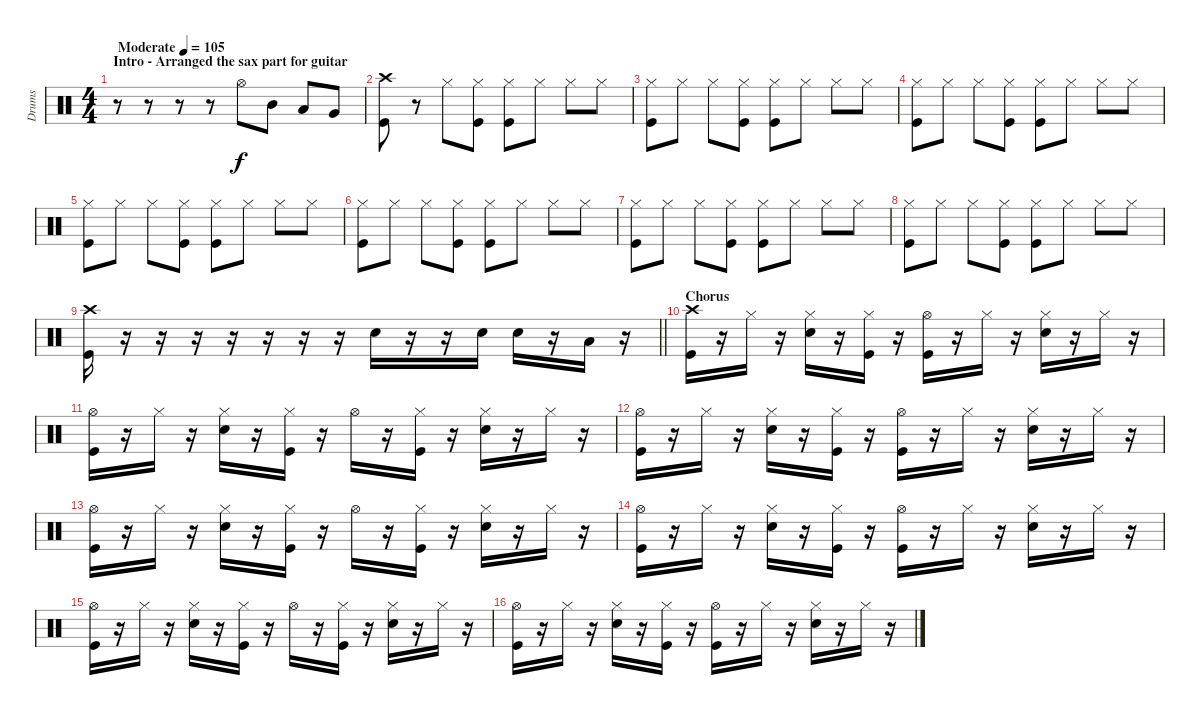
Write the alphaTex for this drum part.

\track ("Drums" "Drums") {instrument percussion}
\staff {score}
\articulation defaults
\ts (4 4)
\section ("" "Intro - Arranged the sax part for guitar")
\tempo (105 "Moderate")
\clef neutral
\ks c
r.8{dy f} r.8 r.8 r.8 "Hi-Hat (open)".8 "Mid Tom (hit)".8 "Low Tom (hit)".8 "Very Low Tom (hit)".8 |
("Crash high (hit)" "Kick (hit)").8 r.8 "Hi-Hat (closed)".8 ("Hi-Hat (closed)" "Kick (hit)").8 ("Hi-Hat (closed)" "Kick (hit)").8 "Hi-Hat (closed)".8 "Hi-Hat (closed)".8 "Hi-Hat (closed)".8 |
("Hi-Hat (closed)" "Kick (hit)").8 "Hi-Hat (closed)".8 "Hi-Hat (closed)".8 ("Hi-Hat (closed)" "Kick (hit)").8 ("Hi-Hat (closed)" "Kick (hit)").8 "Hi-Hat (closed)".8 "Hi-Hat (closed)".8 "Hi-Hat (closed)".8 |
("Hi-Hat (closed)" "Kick (hit)").8 "Hi-Hat (closed)".8 "Hi-Hat (closed)".8 ("Hi-Hat (closed)" "Kick (hit)").8 ("Hi-Hat (closed)" "Kick (hit)").8 "Hi-Hat (closed)".8 "Hi-Hat (closed)".8 "Hi-Hat (closed)".8 |
("Hi-Hat (closed)" "Kick (hit)").8 "Hi-Hat (closed)".8 "Hi-Hat (closed)".8 ("Hi-Hat (closed)" "Kick (hit)").8 ("Hi-Hat (closed)" "Kick (hit)").8 "Hi-Hat (closed)".8 "Hi-Hat (closed)".8 "Hi-Hat (closed)".8 |
("Hi-Hat (closed)" "Kick (hit)").8 "Hi-Hat (closed)".8 "Hi-Hat (closed)".8 ("Hi-Hat (closed)" "Kick (hit)").8 ("Hi-Hat (closed)" "Kick (hit)").8 "Hi-Hat (closed)".8 "Hi-Hat (closed)".8 "Hi-Hat (closed)".8 |
("Hi-Hat (closed)" "Kick (hit)").8 "Hi-Hat (closed)".8 "Hi-Hat (closed)".8 ("Hi-Hat (closed)" "Kick (hit)").8 ("Hi-Hat (closed)" "Kick (hit)").8 "Hi-Hat (closed)".8 "Hi-Hat (closed)".8 "Hi-Hat (closed)".8 |
("Hi-Hat (closed)" "Kick (hit)").8 "Hi-Hat (closed)".8 "Hi-Hat (closed)".8 ("Hi-Hat (closed)" "Kick (hit)").8 ("Hi-Hat (closed)" "Kick (hit)").8 "Hi-Hat (closed)".8 "Hi-Hat (closed)".8 "Hi-Hat (closed)".8 |
\barLineRight lightlight
("Crash high (hit)" "Kick (hit)").16 r.16 r.16 r.16 r.16 r.16 r.16 r.16 "Snare (hit) 2".16 r.16 r.16 "Snare (hit) 2".16 "Snare (hit) 2".16 r.16 "Low Tom (hit)".16 r.16 |
\section ("" "Chorus")
("Crash high (hit)" "Kick (hit)").16 r.16 "Hi-Hat (closed)".16 r.16 ("Hi-Hat (closed)" "Snare (hit) 2").16 r.16 ("Hi-Hat (closed)" "Kick (hit)").16 r.16 ("Hi-Hat (open)" "Kick (hit)").16 r.16 "Hi-Hat (closed)".16 r.16 ("Hi-Hat (closed)" "Snare (hit) 2").16 r.16 "Hi-Hat (closed)".16 r.16 |
("Hi-Hat (open)" "Kick (hit)").16 r.16 "Hi-Hat (closed)".16 r.16 ("Hi-Hat (closed)" "Snare (hit) 2").16 r.16 ("Hi-Hat (closed)" "Kick (hit)").16 r.16 "Hi-Hat (open)".16 r.16 ("Hi-Hat (closed)" "Kick (hit)").16 r.16 ("Hi-Hat (closed)" "Snare (hit) 2").16 r.16 "Hi-Hat (closed)".16 r.16 |
("Hi-Hat (open)" "Kick (hit)").16 r.16 "Hi-Hat (closed)".16 r.16 ("Hi-Hat (closed)" "Snare (hit) 2").16 r.16 ("Hi-Hat (closed)" "Kick (hit)").16 r.16 ("Hi-Hat (open)" "Kick (hit)").16 r.16 "Hi-Hat (closed)".16 r.16 ("Hi-Hat (closed)" "Snare (hit) 2").16 r.16 "Hi-Hat (closed)".16 r.16 |
("Hi-Hat (open)" "Kick (hit)").16 r.16 "Hi-Hat (closed)".16 r.16 ("Hi-Hat (closed)" "Snare (hit) 2").16 r.16 ("Hi-Hat (closed)" "Kick (hit)").16 r.16 "Hi-Hat (open)".16 r.16 ("Hi-Hat (closed)" "Kick (hit)").16 r.16 ("Hi-Hat (closed)" "Snare (hit) 2").16 r.16 "Hi-Hat (closed)".16 r.16 |
("Hi-Hat (open)" "Kick (hit)").16 r.16 "Hi-Hat (closed)".16 r.16 ("Hi-Hat (closed)" "Snare (hit) 2").16 r.16 ("Hi-Hat (closed)" "Kick (hit)").16 r.16 ("Hi-Hat (open)" "Kick (hit)").16 r.16 "Hi-Hat (closed)".16 r.16 ("Hi-Hat (closed)" "Snare (hit) 2").16 r.16 "Hi-Hat (closed)".16 r.16 |
("Hi-Hat (open)" "Kick (hit)").16 r.16 "Hi-Hat (closed)".16 r.16 ("Hi-Hat (closed)" "Snare (hit) 2").16 r.16 ("Hi-Hat (closed)" "Kick (hit)").16 r.16 "Hi-Hat (open)".16 r.16 ("Hi-Hat (closed)" "Kick (hit)").16 r.16 ("Hi-Hat (closed)" "Snare (hit) 2").16 r.16 "Hi-Hat (closed)".16 r.16 |
("Hi-Hat (open)" "Kick (hit)").16 r.16 "Hi-Hat (closed)".16 r.16 ("Hi-Hat (closed)" "Snare (hit) 2").16 r.16 ("Hi-Hat (closed)" "Kick (hit)").16 r.16 ("Hi-Hat (open)" "Kick (hit)").16 r.16 "Hi-Hat (closed)".16 r.16 ("Hi-Hat (closed)" "Snare (hit) 2").16 r.16 "Hi-Hat (closed)".16 r.16
